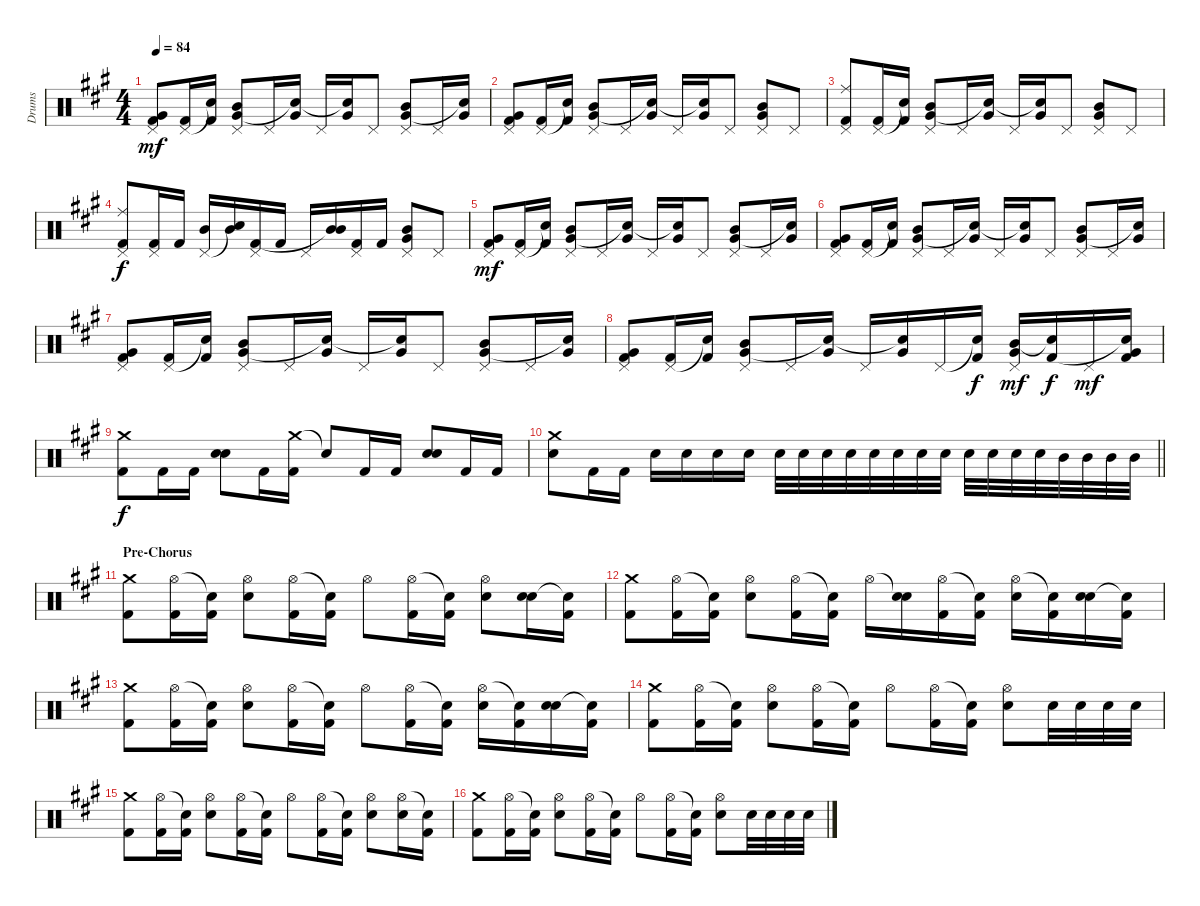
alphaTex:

\track ("Drums" "Drums") {instrument percussion}
\staff {score}
\articulation defaults
\ts (4 4)
\tempo 84
\clef neutral
\ks a
("Very Low Tom (hit)" "Pedal Hi-Hat (hit)" "Kick (hit) 2").8{dy mf} ("Pedal Hi-Hat (hit)" "Kick (hit) 2").16 ("Snare (hit)"{t} "Kick (hit) 2").16 ("Mid Tom (hit)" "Very Low Tom (hit)" "Pedal Hi-Hat (hit)").8 "Pedal Hi-Hat (hit)".16 ("Very Low Tom (hit)" "Snare (hit)"{t}).16 "Pedal Hi-Hat (hit)".16 ("Very Low Tom (hit)" "Snare (hit)"{t}).16 "Pedal Hi-Hat (hit)".8 ("Mid Tom (hit)" "Very Low Tom (hit)" "Pedal Hi-Hat (hit)").8 "Pedal Hi-Hat (hit)".16 ("Very Low Tom (hit)" "Snare (hit)"{t}).16 |
("Very Low Tom (hit)" "Pedal Hi-Hat (hit)" "Kick (hit) 2").8 ("Pedal Hi-Hat (hit)" "Kick (hit) 2").16 ("Snare (hit)"{t} "Kick (hit) 2").16 ("Mid Tom (hit)" "Very Low Tom (hit)" "Pedal Hi-Hat (hit)").8 "Pedal Hi-Hat (hit)".16 ("Very Low Tom (hit)" "Snare (hit)"{t}).16 "Pedal Hi-Hat (hit)".16 ("Very Low Tom (hit)" "Snare (hit)"{t}).16 "Pedal Hi-Hat (hit)".8 ("Mid Tom (hit)" "Very Low Tom (hit)" "Pedal Hi-Hat (hit)").8 "Pedal Hi-Hat (hit)".8 |
("Ride (middle)" "Pedal Hi-Hat (hit)" "Kick (hit) 2").8 ("Pedal Hi-Hat (hit)" "Kick (hit) 2").16 ("Snare (hit)"{t} "Kick (hit) 2").16 ("Mid Tom (hit)" "Very Low Tom (hit)" "Pedal Hi-Hat (hit)").8 "Pedal Hi-Hat (hit)".16 ("Very Low Tom (hit)" "Snare (hit)"{t}).16 "Pedal Hi-Hat (hit)".16 ("Very Low Tom (hit)" "Snare (hit)"{t}).16 "Pedal Hi-Hat (hit)".8 ("Mid Tom (hit)" "Very Low Tom (hit)" "Pedal Hi-Hat (hit)").8 "Pedal Hi-Hat (hit)".8 |
("Ride (middle)" "Pedal Hi-Hat (hit)" "Kick (hit) 2").8{dy f} ("Pedal Hi-Hat (hit)" "Kick (hit) 2").16 "Kick (hit) 2".16 ("Mid Tom (hit)" "Pedal Hi-Hat (hit)").16 ("Mid Tom (hit)" "Snare (hit)"{t}).16 ("Pedal Hi-Hat (hit)" "Kick (hit) 2").16 "Kick (hit) 2".16 "Pedal Hi-Hat (hit)".16 ("Mid Tom (hit)" "Mid Tom (hit)"{t}).16 ("Pedal Hi-Hat (hit)" "Kick (hit) 2").16 "Kick (hit) 2".16 ("Mid Tom (hit)" "Very Low Tom (hit)" "Pedal Hi-Hat (hit)").8 "Pedal Hi-Hat (hit)".8 |
("Very Low Tom (hit)" "Pedal Hi-Hat (hit)" "Kick (hit) 2").8{dy mf} ("Pedal Hi-Hat (hit)" "Kick (hit) 2").16 ("Snare (hit)"{t} "Kick (hit) 2").16 ("Mid Tom (hit)" "Very Low Tom (hit)" "Pedal Hi-Hat (hit)").8 "Pedal Hi-Hat (hit)".16 ("Very Low Tom (hit)" "Snare (hit)"{t}).16 "Pedal Hi-Hat (hit)".16 ("Very Low Tom (hit)" "Snare (hit)"{t}).16 "Pedal Hi-Hat (hit)".8 ("Mid Tom (hit)" "Very Low Tom (hit)" "Pedal Hi-Hat (hit)").8 "Pedal Hi-Hat (hit)".16 ("Very Low Tom (hit)" "Snare (hit)"{t}).16 |
("Very Low Tom (hit)" "Pedal Hi-Hat (hit)" "Kick (hit) 2").8 ("Pedal Hi-Hat (hit)" "Kick (hit) 2").16 ("Snare (hit)"{t} "Kick (hit) 2").16 ("Mid Tom (hit)" "Very Low Tom (hit)" "Pedal Hi-Hat (hit)").8 "Pedal Hi-Hat (hit)".16 ("Very Low Tom (hit)" "Snare (hit)"{t}).16 "Pedal Hi-Hat (hit)".16 ("Very Low Tom (hit)" "Snare (hit)"{t}).16 "Pedal Hi-Hat (hit)".8 ("Mid Tom (hit)" "Very Low Tom (hit)" "Pedal Hi-Hat (hit)").8 "Pedal Hi-Hat (hit)".16 ("Very Low Tom (hit)" "Snare (hit)"{t}).16 |
("Very Low Tom (hit)" "Pedal Hi-Hat (hit)" "Kick (hit) 2").8 ("Pedal Hi-Hat (hit)" "Kick (hit) 2").16 ("Snare (hit)"{t} "Kick (hit) 2").16 ("Mid Tom (hit)" "Very Low Tom (hit)" "Pedal Hi-Hat (hit)").8 "Pedal Hi-Hat (hit)".16 ("Very Low Tom (hit)" "Snare (hit)"{t}).16 "Pedal Hi-Hat (hit)".16 ("Very Low Tom (hit)" "Snare (hit)"{t}).16 "Pedal Hi-Hat (hit)".8 ("Mid Tom (hit)" "Very Low Tom (hit)" "Pedal Hi-Hat (hit)").8 "Pedal Hi-Hat (hit)".16 ("Very Low Tom (hit)" "Snare (hit)"{t}).16 |
("Very Low Tom (hit)" "Pedal Hi-Hat (hit)" "Kick (hit) 2").8 ("Pedal Hi-Hat (hit)" "Kick (hit) 2").16 ("Snare (hit)"{t} "Kick (hit) 2").16 ("Mid Tom (hit)" "Very Low Tom (hit)" "Pedal Hi-Hat (hit)").8 "Pedal Hi-Hat (hit)".16 ("Very Low Tom (hit)" "Snare (hit)"{t}).16 "Pedal Hi-Hat (hit)".16 ("Very Low Tom (hit)" "Snare (hit)"{t}).16 "Pedal Hi-Hat (hit)".16 ("Snare (hit)"{t} "Kick (hit) 2").16{dy f} ("Mid Tom (hit)" "Very Low Tom (hit)" "Pedal Hi-Hat (hit)").16{dy mf} ("Snare (hit)"{t} "Kick (hit) 2").16{dy f} "Pedal Hi-Hat (hit)".16{dy mf} ("Very Low Tom (hit)" "Snare (hit)"{t} "Kick (hit) 2").16 |
("Crash medium (hit)" "Kick (hit) 2").8{dy f} "Kick (hit) 2".16 "Kick (hit) 2".16 ("Electric Snare (hit)" "Electric Snare (hit)").8 "Kick (hit) 2".16 ("Crash medium (hit)" "Kick (hit) 2").16 "Snare (hit)"{t}.8 "Kick (hit) 2".16 "Kick (hit) 2".16 ("Electric Snare (hit)" "Electric Snare (hit)").8 "Kick (hit) 2".16 "Kick (hit) 2".16 |
\barLineRight lightlight
("Crash medium (hit)" "Electric Snare (hit)").8 "Kick (hit) 2".16 "Kick (hit) 2".16 "Electric Snare (hit)".16 "Electric Snare (hit)".16 "Electric Snare (hit)".16 "Electric Snare (hit)".16 "Electric Snare (hit)".32 "Electric Snare (hit)".32 "Electric Snare (hit)".32 "Electric Snare (hit)".32 "Electric Snare (hit)".32 "Electric Snare (hit)".32 "Electric Snare (hit)".32 "Electric Snare (hit)".32 "Electric Snare (hit)".32 "Electric Snare (hit)".32 "Electric Snare (hit)".32 "Electric Snare (hit)".32 "Mid Tom (hit)".32 "Mid Tom (hit)".32 "Mid Tom (hit)".32 "Mid Tom (hit)".32 |
\section ("" "Pre-Chorus")
("Crash medium (hit)" "Kick (hit) 2").8 ("Hi-Hat (open)" "Kick (hit) 2").16 ("Snare (hit)"{t} "Kick (hit) 2").16 ("Hi-Hat (open)" "Electric Snare (hit)").8 ("Hi-Hat (open)" "Kick (hit) 2").16 ("Snare (hit)"{t} "Kick (hit) 2").16 "Hi-Hat (open)".8 ("Hi-Hat (open)" "Kick (hit) 2").16 ("Snare (hit)"{t} "Kick (hit) 2").16 ("Hi-Hat (open)" "Electric Snare (hit)").8 ("Electric Snare (hit)" "Electric Snare (hit)").16 ("Snare (hit)"{t} "Kick (hit) 2").16 |
("Crash medium (hit)" "Kick (hit) 2").8 ("Hi-Hat (open)" "Kick (hit) 2").16 ("Snare (hit)"{t} "Kick (hit) 2").16 ("Hi-Hat (open)" "Electric Snare (hit)").8 ("Hi-Hat (open)" "Kick (hit) 2").16 ("Snare (hit)"{t} "Kick (hit) 2").16 "Hi-Hat (open)".16 ("Snare (hit)"{t} "Electric Snare (hit)").16 ("Hi-Hat (open)" "Kick (hit) 2").16 ("Snare (hit)"{t} "Kick (hit) 2").16 ("Hi-Hat (open)" "Electric Snare (hit)").16 ("Snare (hit)"{t} "Kick (hit) 2").16 ("Electric Snare (hit)" "Electric Snare (hit)").16 ("Snare (hit)"{t} "Kick (hit) 2").16 |
("Crash medium (hit)" "Kick (hit) 2").8 ("Hi-Hat (open)" "Kick (hit) 2").16 ("Snare (hit)"{t} "Kick (hit) 2").16 ("Hi-Hat (open)" "Electric Snare (hit)").8 ("Hi-Hat (open)" "Kick (hit) 2").16 ("Snare (hit)"{t} "Kick (hit) 2").16 "Hi-Hat (open)".8 ("Hi-Hat (open)" "Kick (hit) 2").16 ("Snare (hit)"{t} "Kick (hit) 2").16 ("Hi-Hat (open)" "Electric Snare (hit)").16 ("Snare (hit)"{t} "Kick (hit) 2").16 ("Electric Snare (hit)" "Electric Snare (hit)").16 ("Snare (hit)"{t} "Kick (hit) 2").16 |
("Crash medium (hit)" "Kick (hit) 2").8 ("Hi-Hat (open)" "Kick (hit) 2").16 ("Snare (hit)"{t} "Kick (hit) 2").16 ("Hi-Hat (open)" "Electric Snare (hit)").8 ("Hi-Hat (open)" "Kick (hit) 2").16 ("Snare (hit)"{t} "Kick (hit) 2").16 "Hi-Hat (open)".8 ("Hi-Hat (open)" "Kick (hit) 2").16 ("Snare (hit)"{t} "Kick (hit) 2").16 ("Hi-Hat (open)" "Electric Snare (hit)").8 "Electric Snare (hit)".32 "Electric Snare (hit)".32 "Electric Snare (hit)".32 "Electric Snare (hit)".32 |
("Crash medium (hit)" "Kick (hit) 2").8 ("Hi-Hat (open)" "Kick (hit) 2").16 ("Snare (hit)"{t} "Kick (hit) 2").16 ("Hi-Hat (open)" "Electric Snare (hit)").8 ("Hi-Hat (open)" "Kick (hit) 2").16 ("Snare (hit)"{t} "Kick (hit) 2").16 "Hi-Hat (open)".8 ("Hi-Hat (open)" "Kick (hit) 2").16 ("Snare (hit)"{t} "Kick (hit) 2").16 ("Hi-Hat (open)" "Electric Snare (hit)").8 ("Hi-Hat (open)" "Electric Snare (hit)").16 ("Snare (hit)"{t} "Kick (hit) 2").16 |
("Crash medium (hit)" "Kick (hit) 2").8 ("Hi-Hat (open)" "Kick (hit) 2").16 ("Snare (hit)"{t} "Kick (hit) 2").16 ("Hi-Hat (open)" "Electric Snare (hit)").8 ("Hi-Hat (open)" "Kick (hit) 2").16 ("Snare (hit)"{t} "Kick (hit) 2").16 "Hi-Hat (open)".8 ("Hi-Hat (open)" "Kick (hit) 2").16 ("Snare (hit)"{t} "Kick (hit) 2").16 ("Hi-Hat (open)" "Electric Snare (hit)").8 "Electric Snare (hit)".32 "Electric Snare (hit)".32 "Electric Snare (hit)".32 "Electric Snare (hit)".32
